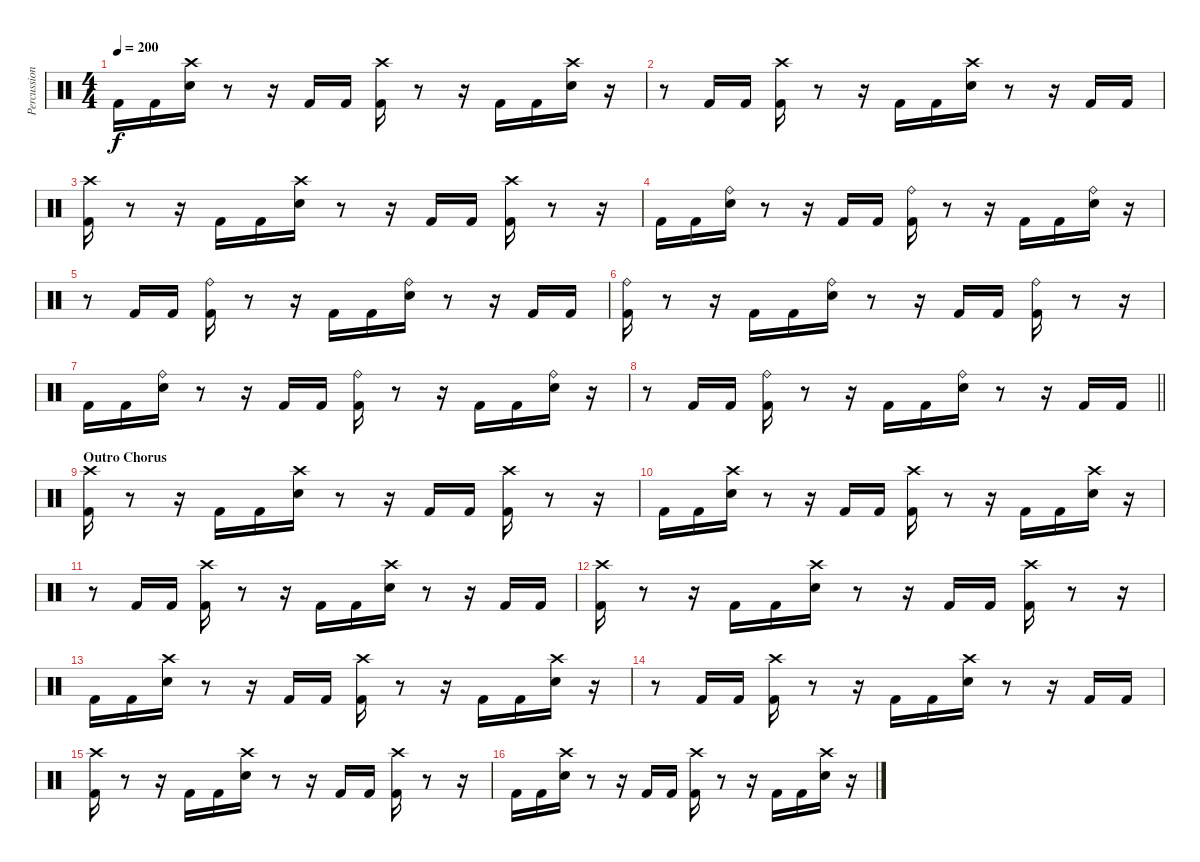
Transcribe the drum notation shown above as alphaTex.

\track ("Percussion" "Percussion") {instrument percussion}
\staff {score}
\articulation defaults
\ts (4 4)
\tempo 200
\clef neutral
\ks c "Kick (hit) 2".16{dy f} "Kick (hit) 2".16
("Crash high (hit)" "Electric Snare (hit)").16 r.8 r.16 "Kick (hit) 2".16 "Kick (hit) 2".16 ("Crash high (hit)" "Kick (hit) 2").16 r.8 r.16 "Kick (hit) 2".16 "Kick (hit) 2".16 ("Crash high (hit)" "Electric Snare (hit)").16 r.16 |
r.8 "Kick (hit) 2".16 "Kick (hit) 2".16 ("Crash high (hit)" "Kick (hit) 2").16 r.8 r.16 "Kick (hit) 2".16 "Kick (hit) 2".16 ("Crash high (hit)" "Electric Snare (hit)").16 r.8 r.16 "Kick (hit) 2".16 "Kick (hit) 2".16 |
("Crash high (hit)" "Kick (hit) 2").16 r.8 r.16 "Kick (hit) 2".16 "Kick (hit) 2".16 ("Crash high (hit)" "Electric Snare (hit)").16 r.8 r.16 "Kick (hit) 2".16 "Kick (hit) 2".16 ("Crash high (hit)" "Kick (hit) 2").16 r.8 r.16 |
"Kick (hit) 2".16 "Kick (hit) 2".16 ("Ride (bell)" "Electric Snare (hit)").16 r.8 r.16 "Kick (hit) 2".16 "Kick (hit) 2".16 ("Ride (bell)" "Kick (hit) 2").16 r.8 r.16 "Kick (hit) 2".16 "Kick (hit) 2".16 ("Ride (bell)" "Electric Snare (hit)").16 r.16 |
r.8 "Kick (hit) 2".16 "Kick (hit) 2".16 ("Ride (bell)" "Kick (hit) 2").16 r.8 r.16 "Kick (hit) 2".16 "Kick (hit) 2".16 ("Ride (bell)" "Electric Snare (hit)").16 r.8 r.16 "Kick (hit) 2".16 "Kick (hit) 2".16 |
("Ride (bell)" "Kick (hit) 2").16 r.8 r.16 "Kick (hit) 2".16 "Kick (hit) 2".16 ("Ride (bell)" "Electric Snare (hit)").16 r.8 r.16 "Kick (hit) 2".16 "Kick (hit) 2".16 ("Ride (bell)" "Kick (hit) 2").16 r.8 r.16 |
"Kick (hit) 2".16 "Kick (hit) 2".16 ("Ride (bell)" "Electric Snare (hit)").16 r.8 r.16 "Kick (hit) 2".16 "Kick (hit) 2".16 ("Ride (bell)" "Kick (hit) 2").16 r.8 r.16 "Kick (hit) 2".16 "Kick (hit) 2".16 ("Ride (bell)" "Electric Snare (hit)").16 r.16 |
\barLineRight lightlight
r.8 "Kick (hit) 2".16 "Kick (hit) 2".16 ("Ride (bell)" "Kick (hit) 2").16 r.8 r.16 "Kick (hit) 2".16 "Kick (hit) 2".16 ("Ride (bell)" "Electric Snare (hit)").16 r.8 r.16 "Kick (hit) 2".16 "Kick (hit) 2".16 |
\section ("" "Outro Chorus")
("Crash high (hit)" "Kick (hit) 2").16 r.8 r.16 "Kick (hit) 2".16 "Kick (hit) 2".16 ("Crash high (hit)" "Electric Snare (hit)").16 r.8 r.16 "Kick (hit) 2".16 "Kick (hit) 2".16 ("Crash high (hit)" "Kick (hit) 2").16 r.8 r.16 |
"Kick (hit) 2".16 "Kick (hit) 2".16 ("Crash high (hit)" "Electric Snare (hit)").16 r.8 r.16 "Kick (hit) 2".16 "Kick (hit) 2".16 ("Crash high (hit)" "Kick (hit) 2").16 r.8 r.16 "Kick (hit) 2".16 "Kick (hit) 2".16 ("Crash high (hit)" "Electric Snare (hit)").16 r.16 |
r.8 "Kick (hit) 2".16 "Kick (hit) 2".16 ("Crash high (hit)" "Kick (hit) 2").16 r.8 r.16 "Kick (hit) 2".16 "Kick (hit) 2".16 ("Crash high (hit)" "Electric Snare (hit)").16 r.8 r.16 "Kick (hit) 2".16 "Kick (hit) 2".16 |
("Crash high (hit)" "Kick (hit) 2").16 r.8 r.16 "Kick (hit) 2".16 "Kick (hit) 2".16 ("Crash high (hit)" "Electric Snare (hit)").16 r.8 r.16 "Kick (hit) 2".16 "Kick (hit) 2".16 ("Crash high (hit)" "Kick (hit) 2").16 r.8 r.16 |
"Kick (hit) 2".16 "Kick (hit) 2".16 ("Crash high (hit)" "Electric Snare (hit)").16 r.8 r.16 "Kick (hit) 2".16 "Kick (hit) 2".16 ("Crash high (hit)" "Kick (hit) 2").16 r.8 r.16 "Kick (hit) 2".16 "Kick (hit) 2".16 ("Crash high (hit)" "Electric Snare (hit)").16 r.16 |
r.8 "Kick (hit) 2".16 "Kick (hit) 2".16 ("Crash high (hit)" "Kick (hit) 2").16 r.8 r.16 "Kick (hit) 2".16 "Kick (hit) 2".16 ("Crash high (hit)" "Electric Snare (hit)").16 r.8 r.16 "Kick (hit) 2".16 "Kick (hit) 2".16 |
("Crash high (hit)" "Kick (hit) 2").16 r.8 r.16 "Kick (hit) 2".16 "Kick (hit) 2".16 ("Crash high (hit)" "Electric Snare (hit)").16 r.8 r.16 "Kick (hit) 2".16 "Kick (hit) 2".16 ("Crash high (hit)" "Kick (hit) 2").16 r.8 r.16 |
"Kick (hit) 2".16 "Kick (hit) 2".16 ("Crash high (hit)" "Electric Snare (hit)").16 r.8 r.16 "Kick (hit) 2".16 "Kick (hit) 2".16 ("Crash high (hit)" "Kick (hit) 2").16 r.8 r.16 "Kick (hit) 2".16 "Kick (hit) 2".16 ("Crash high (hit)" "Electric Snare (hit)").16 r.16
